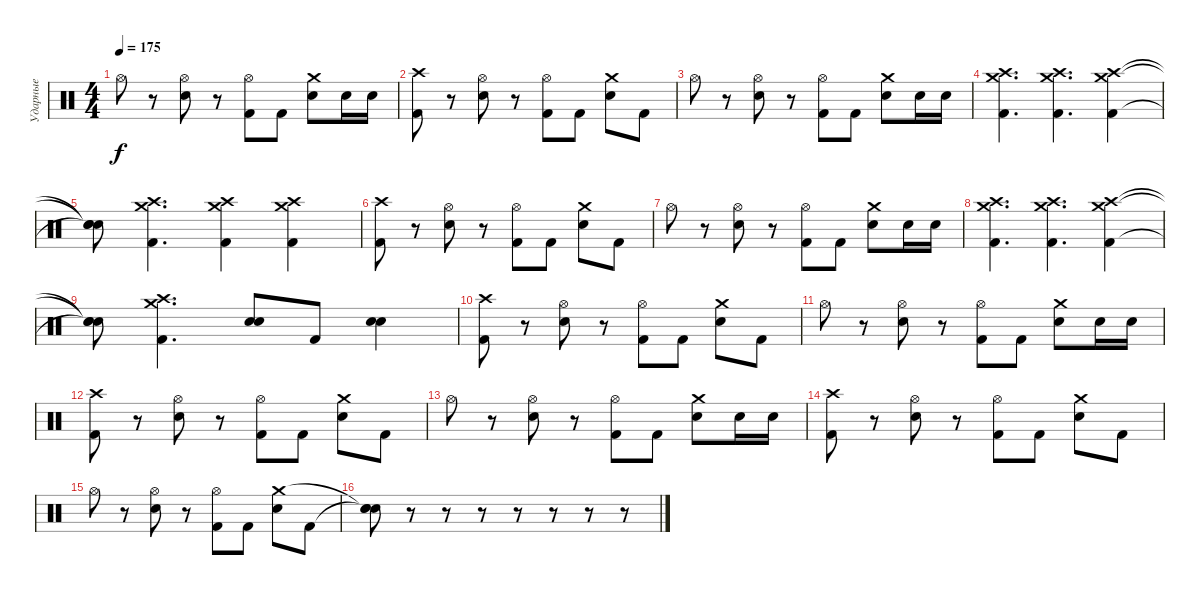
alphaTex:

\track ("Ударные" "Ударные") {instrument percussion}
\staff
\articulation defaults
\ts (4 4)
\tempo 175
\clef neutral
\ks c "Hi-Hat (open)".8{dy f}
r.8 ("Electric Snare (hit)" "Hi-Hat (open)").8 r.8 ("Kick (hit) 2" "Hi-Hat (open)").8 "Kick (hit) 2".8 ("Electric Snare (hit)" "Crash medium (hit)").8 "Electric Snare (hit)".16 "Electric Snare (hit)".16 |
("Kick (hit) 2" "Crash high (hit)").8 r.8 ("Electric Snare (hit)" "Hi-Hat (open)").8 r.8 ("Kick (hit) 2" "Hi-Hat (open)").8 "Kick (hit) 2".8 ("Electric Snare (hit)" "Crash medium (hit)").8 "Kick (hit) 2".8 |
"Hi-Hat (open)".8 r.8 ("Electric Snare (hit)" "Hi-Hat (open)").8 r.8 ("Kick (hit) 2" "Hi-Hat (open)").8 "Kick (hit) 2".8 ("Electric Snare (hit)" "Crash medium (hit)").8 "Electric Snare (hit)".16 "Electric Snare (hit)".16 |
("Kick (hit) 2" "Crash high (hit)" "Crash medium (hit)").4{d} ("Kick (hit) 2" "Crash high (hit)" "Crash medium (hit)").4{d} ("Kick (hit) 2" "Crash high (hit)" "Crash medium (hit)").4 |
("Snare (hit)"{t} "Snare (hit)"{t} "Snare (hit)"{t}).8 ("Kick (hit) 2" "Crash high (hit)" "Crash medium (hit)").4{d} ("Kick (hit) 2" "Crash high (hit)" "Crash medium (hit)").4 ("Kick (hit) 2" "Crash high (hit)" "Crash medium (hit)").4 |
("Kick (hit) 2" "Crash high (hit)").8 r.8 ("Electric Snare (hit)" "Hi-Hat (open)").8 r.8 ("Kick (hit) 2" "Hi-Hat (open)").8 "Kick (hit) 2".8 ("Electric Snare (hit)" "Crash medium (hit)").8 "Kick (hit) 2".8 |
"Hi-Hat (open)".8 r.8 ("Electric Snare (hit)" "Hi-Hat (open)").8 r.8 ("Kick (hit) 2" "Hi-Hat (open)").8 "Kick (hit) 2".8 ("Electric Snare (hit)" "Crash medium (hit)").8 "Electric Snare (hit)".16 "Electric Snare (hit)".16 |
("Kick (hit) 2" "Crash high (hit)" "Crash medium (hit)").4{d} ("Kick (hit) 2" "Crash high (hit)" "Crash medium (hit)").4{d} ("Kick (hit) 2" "Crash high (hit)" "Crash medium (hit)").4 |
("Snare (hit)"{t} "Snare (hit)"{t} "Snare (hit)"{t}).8 ("Kick (hit) 2" "Crash high (hit)" "Crash medium (hit)").4{d} ("Electric Snare (hit)" "Electric Snare (hit)").8{bd 60} "Kick (hit) 2".8 ("Electric Snare (hit)" "Electric Snare (hit)").4{bd 60} |
("Kick (hit) 2" "Crash high (hit)").8 r.8 ("Electric Snare (hit)" "Hi-Hat (open)").8 r.8 ("Kick (hit) 2" "Hi-Hat (open)").8 "Kick (hit) 2".8 ("Electric Snare (hit)" "Crash medium (hit)").8 "Kick (hit) 2".8 |
"Hi-Hat (open)".8 r.8 ("Electric Snare (hit)" "Hi-Hat (open)").8 r.8 ("Kick (hit) 2" "Hi-Hat (open)").8 "Kick (hit) 2".8 ("Electric Snare (hit)" "Crash medium (hit)").8 "Electric Snare (hit)".16 "Electric Snare (hit)".16 |
("Kick (hit) 2" "Crash high (hit)").8 r.8 ("Electric Snare (hit)" "Hi-Hat (open)").8 r.8 ("Kick (hit) 2" "Hi-Hat (open)").8 "Kick (hit) 2".8 ("Electric Snare (hit)" "Crash medium (hit)").8 "Kick (hit) 2".8 |
"Hi-Hat (open)".8 r.8 ("Electric Snare (hit)" "Hi-Hat (open)").8 r.8 ("Kick (hit) 2" "Hi-Hat (open)").8 "Kick (hit) 2".8 ("Electric Snare (hit)" "Crash medium (hit)").8 "Electric Snare (hit)".16 "Electric Snare (hit)".16 |
("Kick (hit) 2" "Crash high (hit)").8 r.8 ("Electric Snare (hit)" "Hi-Hat (open)").8 r.8 ("Kick (hit) 2" "Hi-Hat (open)").8 "Kick (hit) 2".8 ("Electric Snare (hit)" "Crash medium (hit)").8 "Kick (hit) 2".8 |
"Hi-Hat (open)".8 r.8 ("Electric Snare (hit)" "Hi-Hat (open)").8 r.8 ("Kick (hit) 2" "Hi-Hat (open)").8 "Kick (hit) 2".8 ("Electric Snare (hit)" "Crash medium (hit)").8 "Kick (hit) 2".8 |
("Snare (hit)"{t} "Snare (hit)"{t} "Snare (hit)").8 r.8 r.8 r.8 r.8 r.8 r.8 r.8
